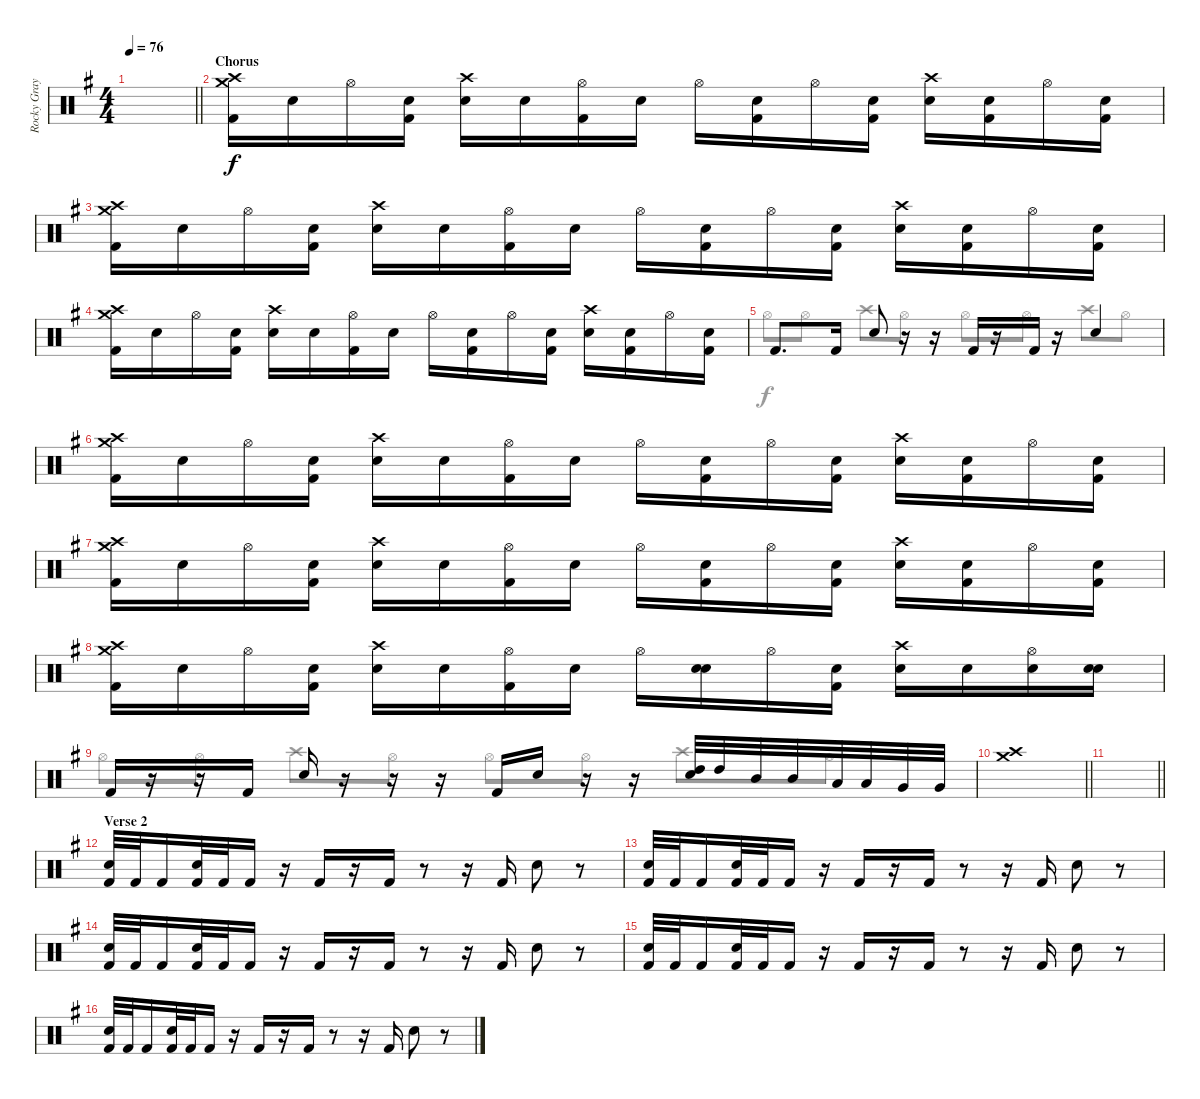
\track ("Rocky Gray" "Rocky Gray") {instrument percussion}
\staff {score}
\articulation defaults
\voice
\ts (4 4)
\tempo 76
\clef neutral
\barLineRight lightlight
\ks g
|
\section ("" "Chorus")
("Crash high (hit)" "Crash medium (hit)" "Kick (hit) 2").16 "Snare (hit)".16 "Hi-Hat (open)".16 ("Snare (hit)" "Kick (hit) 2").16 ("Crash high (hit)" "Electric Snare (hit)").16 "Snare (hit)".16 ("Hi-Hat (open)" "Kick (hit) 2").16 "Snare (hit)".16 "Hi-Hat (open)".16 ("Snare (hit)" "Kick (hit) 2").16 "Hi-Hat (open)".16 ("Snare (hit)" "Kick (hit) 2").16 ("Crash high (hit)" "Electric Snare (hit)").16 ("Snare (hit)" "Kick (hit) 2").16 "Hi-Hat (open)".16 ("Snare (hit)" "Kick (hit) 2").16 |
("Crash high (hit)" "Crash medium (hit)" "Kick (hit) 2").16 "Snare (hit)".16 "Hi-Hat (open)".16 ("Snare (hit)" "Kick (hit) 2").16 ("Crash high (hit)" "Electric Snare (hit)").16 "Snare (hit)".16 ("Hi-Hat (open)" "Kick (hit) 2").16 "Snare (hit)".16 "Hi-Hat (open)".16 ("Snare (hit)" "Kick (hit) 2").16 "Hi-Hat (open)".16 ("Snare (hit)" "Kick (hit) 2").16 ("Crash high (hit)" "Electric Snare (hit)").16 ("Snare (hit)" "Kick (hit) 2").16 "Hi-Hat (open)".16 ("Snare (hit)" "Kick (hit) 2").16 |
("Crash high (hit)" "Crash medium (hit)" "Kick (hit) 2").16 "Snare (hit)".16 "Hi-Hat (open)".16 ("Snare (hit)" "Kick (hit) 2").16 ("Crash high (hit)" "Electric Snare (hit)").16 "Snare (hit)".16 ("Hi-Hat (open)" "Kick (hit) 2").16 "Snare (hit)".16 "Hi-Hat (open)".16 ("Snare (hit)" "Kick (hit) 2").16 "Hi-Hat (open)".16 ("Snare (hit)" "Kick (hit) 2").16 ("Crash high (hit)" "Electric Snare (hit)").16 ("Snare (hit)" "Kick (hit) 2").16 "Hi-Hat (open)".16 ("Snare (hit)" "Kick (hit) 2").16 |
"Kick (hit) 2".8{d} "Kick (hit) 2".16 "Electric Snare (hit)".8 r.16 r.16 "Kick (hit) 2".16 r.16 "Kick (hit) 2".16 r.16 "Electric Snare (hit)".4 |
("Crash high (hit)" "Crash medium (hit)" "Kick (hit) 2").16 "Snare (hit)".16 "Hi-Hat (open)".16 ("Snare (hit)" "Kick (hit) 2").16 ("Crash high (hit)" "Electric Snare (hit)").16 "Snare (hit)".16 ("Hi-Hat (open)" "Kick (hit) 2").16 "Snare (hit)".16 "Hi-Hat (open)".16 ("Snare (hit)" "Kick (hit) 2").16 "Hi-Hat (open)".16 ("Snare (hit)" "Kick (hit) 2").16 ("Crash high (hit)" "Electric Snare (hit)").16 ("Snare (hit)" "Kick (hit) 2").16 "Hi-Hat (open)".16 ("Snare (hit)" "Kick (hit) 2").16 |
("Crash high (hit)" "Crash medium (hit)" "Kick (hit) 2").16 "Snare (hit)".16 "Hi-Hat (open)".16 ("Snare (hit)" "Kick (hit) 2").16 ("Crash high (hit)" "Electric Snare (hit)").16 "Snare (hit)".16 ("Hi-Hat (open)" "Kick (hit) 2").16 "Snare (hit)".16 "Hi-Hat (open)".16 ("Snare (hit)" "Kick (hit) 2").16 "Hi-Hat (open)".16 ("Snare (hit)" "Kick (hit) 2").16 ("Crash high (hit)" "Electric Snare (hit)").16 ("Snare (hit)" "Kick (hit) 2").16 "Hi-Hat (open)".16 ("Snare (hit)" "Kick (hit) 2").16 |
("Crash high (hit)" "Crash medium (hit)" "Kick (hit) 2").16 "Snare (hit)".16 "Hi-Hat (open)".16 ("Snare (hit)" "Kick (hit) 2").16 ("Crash high (hit)" "Electric Snare (hit)").16 "Snare (hit)".16 ("Hi-Hat (open)" "Kick (hit) 2").16 "Snare (hit)".16 "Hi-Hat (open)".16 ("Snare (hit)" "Electric Snare (hit)").16 "Hi-Hat (open)".16 ("Snare (hit)" "Kick (hit) 2").16 ("Crash high (hit)" "Electric Snare (hit)").16 "Snare (hit)".16 ("Hi-Hat (open)" "Electric Snare (hit)").16 ("Snare (hit)" "Electric Snare (hit)").16 |
"Kick (hit) 2".16 r.16 r.16 "Kick (hit) 2".16 "Electric Snare (hit)".16 r.16 r.16 r.16 "Kick (hit) 2".16 "Electric Snare (hit)".16 r.16 r.16 ("High Tom (hit)" "Electric Snare (hit)").32 "High Tom (hit)".32 "Mid Tom (hit)".32 "Mid Tom (hit)".32 "Low Tom (hit)".32 "Low Tom (hit)".32 "Very Low Tom (hit)".32 "Very Low Tom (hit)".32 |
\barLineRight lightlight
("Crash high (hit)" "Crash medium (hit)").1 |
\barLineRight lightlight
|
\section ("" "Verse 2")
("Electric Snare (hit)" "Kick (hit) 2").32 "Kick (hit) 2".32 "Kick (hit) 2".16 ("Electric Snare (hit)" "Kick (hit) 2").32 "Kick (hit) 2".32 "Kick (hit) 2".16 r.16 "Kick (hit) 2".16 r.16 "Kick (hit) 2".16 r.8 r.16 "Kick (hit) 2".16 "Snare (hit) 2".8 r.8 |
("Electric Snare (hit)" "Kick (hit) 2").32 "Kick (hit) 2".32 "Kick (hit) 2".16 ("Electric Snare (hit)" "Kick (hit) 2").32 "Kick (hit) 2".32 "Kick (hit) 2".16 r.16 "Kick (hit) 2".16 r.16 "Kick (hit) 2".16 r.8 r.16 "Kick (hit) 2".16 "Snare (hit) 2".8 r.8 |
("Electric Snare (hit)" "Kick (hit) 2").32 "Kick (hit) 2".32 "Kick (hit) 2".16 ("Electric Snare (hit)" "Kick (hit) 2").32 "Kick (hit) 2".32 "Kick (hit) 2".16 r.16 "Kick (hit) 2".16 r.16 "Kick (hit) 2".16 r.8 r.16 "Kick (hit) 2".16 "Snare (hit) 2".8 r.8 |
("Electric Snare (hit)" "Kick (hit) 2").32 "Kick (hit) 2".32 "Kick (hit) 2".16 ("Electric Snare (hit)" "Kick (hit) 2").32 "Kick (hit) 2".32 "Kick (hit) 2".16 r.16 "Kick (hit) 2".16 r.16 "Kick (hit) 2".16 r.8 r.16 "Kick (hit) 2".16 "Snare (hit) 2".8 r.8 |
("Electric Snare (hit)" "Kick (hit) 2").32 "Kick (hit) 2".32 "Kick (hit) 2".16 ("Electric Snare (hit)" "Kick (hit) 2").32 "Kick (hit) 2".32 "Kick (hit) 2".16 r.16 "Kick (hit) 2".16 r.16 "Kick (hit) 2".16 r.8 r.16 "Kick (hit) 2".16 "Snare (hit) 2".8 r.8
\voice
\clef neutral
\ottava regular
\simile none
\barLineRight lightlight
\ks g
|
|
|
|
"Hi-Hat (open)".8 "Hi-Hat (open)".8 "Crash high (hit)".8 "Hi-Hat (open)".8 "Hi-Hat (open)".8 "Hi-Hat (open)".8 "Crash high (hit)".8 "Hi-Hat (open)".8 |
|
|
|
"Hi-Hat (open)".8 "Hi-Hat (open)".8 "Crash high (hit)".8 "Hi-Hat (open)".8 "Hi-Hat (open)".8 "Hi-Hat (open)".8 "Crash high (hit)".8 "Hi-Hat (open)".8 |
\barLineRight lightlight
|
\barLineRight lightlight
|
|
|
|
|
